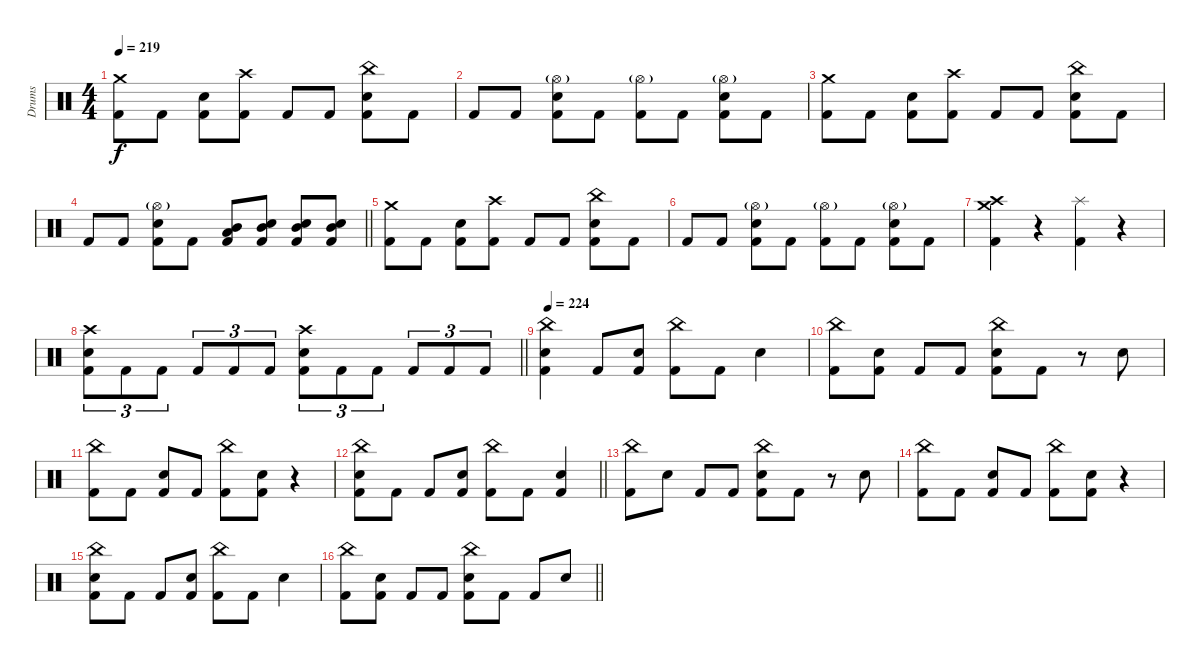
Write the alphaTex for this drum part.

\track ("Drums" "Drums") {instrument percussion}
\staff {score}
\articulation defaults
\ts (4 4)
\section ("" "")
\tempo 219
\clef neutral
\ks c
("Crash medium (hit)" "Kick (hit) 2").8{dy f} "Kick (hit) 2".8 ("Electric Snare (hit)" "Kick (hit) 2").8 ("Crash high (hit)" "Kick (hit) 2").8 "Kick (hit) 2".8 "Kick (hit) 2".8 ("China (hit)" "Electric Snare (hit)" "Kick (hit) 2").8 "Kick (hit) 2".8 |
"Kick (hit) 2".8 "Kick (hit) 2".8 ("Hi-Hat (open)"{g} "Electric Snare (hit)" "Kick (hit) 2").8 "Kick (hit) 2".8 ("Hi-Hat (open)"{g} "Kick (hit) 2").8 "Kick (hit) 2".8 ("Hi-Hat (open)"{g} "Electric Snare (hit)" "Kick (hit) 2").8 "Kick (hit) 2".8 |
("Crash medium (hit)" "Kick (hit) 2").8 "Kick (hit) 2".8 ("Electric Snare (hit)" "Kick (hit) 2").8 ("Crash high (hit)" "Kick (hit) 2").8 "Kick (hit) 2".8 "Kick (hit) 2".8 ("China (hit)" "Electric Snare (hit)" "Kick (hit) 2").8 "Kick (hit) 2".8 |
\barLineRight lightlight "Kick (hit) 2".8 "Kick (hit) 2".8
("Hi-Hat (open)"{g} "Electric Snare (hit)" "Kick (hit) 2").8 "Kick (hit) 2".8 ("Mid Tom (hit)" "Low Tom (hit)" "Kick (hit) 2").8 ("Mid Tom (hit)" "Electric Snare (hit)" "Kick (hit) 2").8 ("Mid Tom (hit)" "Electric Snare (hit)" "Kick (hit) 2").8 ("Mid Tom (hit)" "Electric Snare (hit)" "Kick (hit) 2").8 |
("Crash medium (hit)" "Kick (hit) 2").8 "Kick (hit) 2".8 ("Electric Snare (hit)" "Kick (hit) 2").8 ("Crash high (hit)" "Kick (hit) 2").8 "Kick (hit) 2".8 "Kick (hit) 2".8 ("China (hit)" "Electric Snare (hit)" "Kick (hit) 2").8 "Kick (hit) 2".8 |
"Kick (hit) 2".8 "Kick (hit) 2".8 ("Hi-Hat (open)"{g} "Electric Snare (hit)" "Kick (hit) 2").8 "Kick (hit) 2".8 ("Hi-Hat (open)"{g} "Kick (hit) 2").8 "Kick (hit) 2".8 ("Hi-Hat (open)"{g} "Electric Snare (hit)" "Kick (hit) 2").8 "Kick (hit) 2".8 |
("Crash high (hit)" "Crash medium (hit)" "Kick (hit) 2").4 r.4 ("Splash (hit)" "Kick (hit) 2").4 r.4 |
\barLineRight lightlight
("Crash high (hit)" "Electric Snare (hit)" "Kick (hit) 2").8{tu (3 2)} "Kick (hit) 2".8{tu (3 2)} "Kick (hit) 2".8{tu (3 2)} "Kick (hit) 2".8{tu (3 2)} "Kick (hit) 2".8{tu (3 2)} "Kick (hit) 2".8{tu (3 2)} ("Crash high (hit)" "Electric Snare (hit)" "Kick (hit) 2").8{tu (3 2)} "Kick (hit) 2".8{tu (3 2)} "Kick (hit) 2".8{tu (3 2)} "Kick (hit) 2".8{tu (3 2)} "Kick (hit) 2".8{tu (3 2)} "Kick (hit) 2".8{tu (3 2)} |
\section ("" "")
\tempo 224
("China (hit)" "Electric Snare (hit)" "Kick (hit) 2").4 "Kick (hit) 2".8 ("Electric Snare (hit)" "Kick (hit) 2").8 ("China (hit)" "Kick (hit) 2").8 "Kick (hit) 2".8 "Electric Snare (hit)".4 |
("China (hit)" "Kick (hit) 2").8 ("Electric Snare (hit)" "Kick (hit) 2").8 "Kick (hit) 2".8 "Kick (hit) 2".8 ("China (hit)" "Electric Snare (hit)" "Kick (hit) 2").8 "Kick (hit) 2".8 r.8 "Electric Snare (hit)".8 |
("China (hit)" "Kick (hit) 2").8 "Kick (hit) 2".8 ("Electric Snare (hit)" "Kick (hit) 2").8 "Kick (hit) 2".8 ("China (hit)" "Kick (hit) 2").8 ("Electric Snare (hit)" "Kick (hit) 2").8 r.4 |
\barLineRight lightlight
("China (hit)" "Electric Snare (hit)" "Kick (hit) 2").8 "Kick (hit) 2".8 "Kick (hit) 2".8 ("Electric Snare (hit)" "Kick (hit) 2").8 ("China (hit)" "Kick (hit) 2").8 "Kick (hit) 2".8 ("Electric Snare (hit)" "Kick (hit) 2").4 |
("China (hit)" "Kick (hit) 2").8 "Electric Snare (hit)".8 "Kick (hit) 2".8 "Kick (hit) 2".8 ("China (hit)" "Electric Snare (hit)" "Kick (hit) 2").8 "Kick (hit) 2".8 r.8 "Electric Snare (hit)".8 |
("China (hit)" "Kick (hit) 2").8 "Kick (hit) 2".8 ("Electric Snare (hit)" "Kick (hit) 2").8 "Kick (hit) 2".8 ("China (hit)" "Kick (hit) 2").8 ("Electric Snare (hit)" "Kick (hit) 2").8 r.4 |
("China (hit)" "Electric Snare (hit)" "Kick (hit) 2").8 "Kick (hit) 2".8 "Kick (hit) 2".8 ("Electric Snare (hit)" "Kick (hit) 2").8 ("China (hit)" "Kick (hit) 2").8 "Kick (hit) 2".8 "Electric Snare (hit)".4 |
\barLineRight lightlight
("China (hit)" "Kick (hit) 2").8 ("Electric Snare (hit)" "Kick (hit) 2").8 "Kick (hit) 2".8 "Kick (hit) 2".8 ("China (hit)" "Electric Snare (hit)" "Kick (hit) 2").8 "Kick (hit) 2".8 "Kick (hit) 2".8 "Electric Snare (hit)".8
